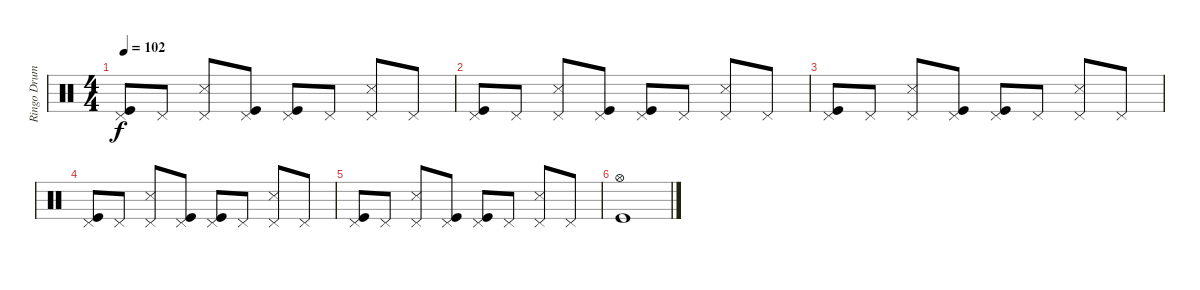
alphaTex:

\track ("Ringo Drums" "Ringo Drum") {instrument percussion}
\staff {score}
\articulation defaults
\ts (4 4)
\tempo 102
\clef neutral
\ks c
("Pedal Hi-Hat (hit)" "Kick (hit)").8{dy f} "Pedal Hi-Hat (hit)".8 ("Pedal Hi-Hat (hit)" "Snare (side stick) 3").8 ("Pedal Hi-Hat (hit)" "Kick (hit)").8 ("Pedal Hi-Hat (hit)" "Kick (hit)").8 "Pedal Hi-Hat (hit)".8 ("Pedal Hi-Hat (hit)" "Snare (side stick) 3").8 "Pedal Hi-Hat (hit)".8 |
("Pedal Hi-Hat (hit)" "Kick (hit)").8 "Pedal Hi-Hat (hit)".8 ("Pedal Hi-Hat (hit)" "Snare (side stick) 3").8 ("Pedal Hi-Hat (hit)" "Kick (hit)").8 ("Pedal Hi-Hat (hit)" "Kick (hit)").8 "Pedal Hi-Hat (hit)".8 ("Pedal Hi-Hat (hit)" "Snare (side stick) 3").8 "Pedal Hi-Hat (hit)".8 |
("Pedal Hi-Hat (hit)" "Kick (hit)").8 "Pedal Hi-Hat (hit)".8 ("Pedal Hi-Hat (hit)" "Snare (side stick) 3").8 ("Pedal Hi-Hat (hit)" "Kick (hit)").8 ("Pedal Hi-Hat (hit)" "Kick (hit)").8 "Pedal Hi-Hat (hit)".8 ("Pedal Hi-Hat (hit)" "Snare (side stick) 3").8 "Pedal Hi-Hat (hit)".8 |
("Pedal Hi-Hat (hit)" "Kick (hit)").8 "Pedal Hi-Hat (hit)".8 ("Pedal Hi-Hat (hit)" "Snare (side stick) 3").8 ("Pedal Hi-Hat (hit)" "Kick (hit)").8 ("Pedal Hi-Hat (hit)" "Kick (hit)").8 "Pedal Hi-Hat (hit)".8 ("Pedal Hi-Hat (hit)" "Snare (side stick) 3").8 "Pedal Hi-Hat (hit)".8 |
("Pedal Hi-Hat (hit)" "Kick (hit)").8 "Pedal Hi-Hat (hit)".8 ("Pedal Hi-Hat (hit)" "Snare (side stick) 3").8 ("Pedal Hi-Hat (hit)" "Kick (hit)").8 ("Pedal Hi-Hat (hit)" "Kick (hit)").8 "Pedal Hi-Hat (hit)".8 ("Pedal Hi-Hat (hit)" "Snare (side stick) 3").8 "Pedal Hi-Hat (hit)".8 |
("Hi-Hat (open)" "Kick (hit)").1
